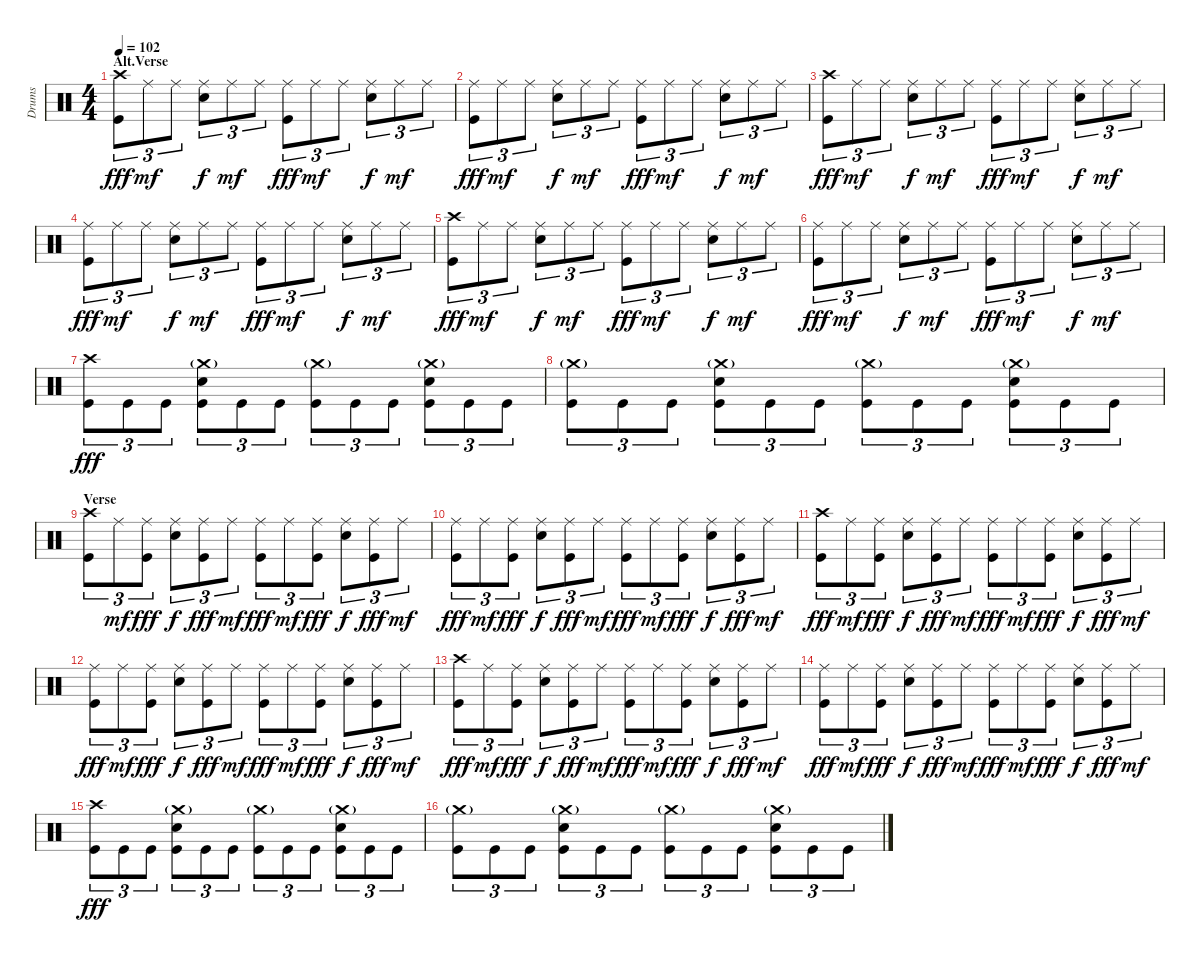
\track ("Drums" "Drums") {instrument percussion}
\staff {score}
\articulation defaults
\ts (4 4)
\section ("" "Alt.Verse")
\tempo 102
\clef neutral
\ks c
("Crash high (hit)" "Kick (hit)").8{tu (3 2) dy fff} "Ride (middle)".8{tu (3 2) dy mf} "Ride (middle)".8{tu (3 2)} ("Ride (middle)" "Snare (hit) 2").8{tu (3 2) dy f} "Ride (middle)".8{tu (3 2) dy mf} "Ride (middle)".8{tu (3 2)} ("Ride (middle)" "Kick (hit)").8{tu (3 2) dy fff} "Ride (middle)".8{tu (3 2) dy mf} "Ride (middle)".8{tu (3 2)} ("Ride (middle)" "Snare (hit) 2").8{tu (3 2) dy f} "Ride (middle)".8{tu (3 2) dy mf} "Ride (middle)".8{tu (3 2)} |
("Ride (middle)" "Kick (hit)").8{tu (3 2) dy fff} "Ride (middle)".8{tu (3 2) dy mf} "Ride (middle)".8{tu (3 2)} ("Ride (middle)" "Snare (hit) 2").8{tu (3 2) dy f} "Ride (middle)".8{tu (3 2) dy mf} "Ride (middle)".8{tu (3 2)} ("Ride (middle)" "Kick (hit)").8{tu (3 2) dy fff} "Ride (middle)".8{tu (3 2) dy mf} "Ride (middle)".8{tu (3 2)} ("Ride (middle)" "Snare (hit) 2").8{tu (3 2) dy f} "Ride (middle)".8{tu (3 2) dy mf} "Ride (middle)".8{tu (3 2)} |
("Crash high (hit)" "Kick (hit)").8{tu (3 2) dy fff} "Ride (middle)".8{tu (3 2) dy mf} "Ride (middle)".8{tu (3 2)} ("Ride (middle)" "Snare (hit) 2").8{tu (3 2) dy f} "Ride (middle)".8{tu (3 2) dy mf} "Ride (middle)".8{tu (3 2)} ("Ride (middle)" "Kick (hit)").8{tu (3 2) dy fff} "Ride (middle)".8{tu (3 2) dy mf} "Ride (middle)".8{tu (3 2)} ("Ride (middle)" "Snare (hit) 2").8{tu (3 2) dy f} "Ride (middle)".8{tu (3 2) dy mf} "Ride (middle)".8{tu (3 2)} |
("Ride (middle)" "Kick (hit)").8{tu (3 2) dy fff} "Ride (middle)".8{tu (3 2) dy mf} "Ride (middle)".8{tu (3 2)} ("Ride (middle)" "Snare (hit) 2").8{tu (3 2) dy f} "Ride (middle)".8{tu (3 2) dy mf} "Ride (middle)".8{tu (3 2)} ("Ride (middle)" "Kick (hit)").8{tu (3 2) dy fff} "Ride (middle)".8{tu (3 2) dy mf} "Ride (middle)".8{tu (3 2)} ("Ride (middle)" "Snare (hit) 2").8{tu (3 2) dy f} "Ride (middle)".8{tu (3 2) dy mf} "Ride (middle)".8{tu (3 2)} |
("Crash high (hit)" "Kick (hit)").8{tu (3 2) dy fff} "Ride (middle)".8{tu (3 2) dy mf} "Ride (middle)".8{tu (3 2)} ("Ride (middle)" "Snare (hit) 2").8{tu (3 2) dy f} "Ride (middle)".8{tu (3 2) dy mf} "Ride (middle)".8{tu (3 2)} ("Ride (middle)" "Kick (hit)").8{tu (3 2) dy fff} "Ride (middle)".8{tu (3 2) dy mf} "Ride (middle)".8{tu (3 2)} ("Ride (middle)" "Snare (hit) 2").8{tu (3 2) dy f} "Ride (middle)".8{tu (3 2) dy mf} "Ride (middle)".8{tu (3 2)} |
("Ride (middle)" "Kick (hit)").8{tu (3 2) dy fff} "Ride (middle)".8{tu (3 2) dy mf} "Ride (middle)".8{tu (3 2)} ("Ride (middle)" "Snare (hit) 2").8{tu (3 2) dy f} "Ride (middle)".8{tu (3 2) dy mf} "Ride (middle)".8{tu (3 2)} ("Ride (middle)" "Kick (hit)").8{tu (3 2) dy fff} "Ride (middle)".8{tu (3 2) dy mf} "Ride (middle)".8{tu (3 2)} ("Ride (middle)" "Snare (hit) 2").8{tu (3 2) dy f} "Ride (middle)".8{tu (3 2) dy mf} "Ride (middle)".8{tu (3 2)} |
("Crash high (hit)" "Kick (hit)").8{tu (3 2) dy fff} "Kick (hit)".8{tu (3 2)} "Kick (hit)".8{tu (3 2)} ("Crash medium (hit)"{g} "Snare (hit) 2" "Kick (hit)").8{tu (3 2)} "Kick (hit)".8{tu (3 2)} "Kick (hit)".8{tu (3 2)} ("Crash medium (hit)"{g} "Kick (hit)").8{tu (3 2)} "Kick (hit)".8{tu (3 2)} "Kick (hit)".8{tu (3 2)} ("Crash medium (hit)"{g} "Snare (hit) 2" "Kick (hit)").8{tu (3 2)} "Kick (hit)".8{tu (3 2)} "Kick (hit)".8{tu (3 2)} |
("Crash medium (hit)"{g} "Kick (hit)").8{tu (3 2)} "Kick (hit)".8{tu (3 2)} "Kick (hit)".8{tu (3 2)} ("Crash medium (hit)"{g} "Snare (hit) 2" "Kick (hit)").8{tu (3 2)} "Kick (hit)".8{tu (3 2)} "Kick (hit)".8{tu (3 2)} ("Crash medium (hit)"{g} "Kick (hit)").8{tu (3 2)} "Kick (hit)".8{tu (3 2)} "Kick (hit)".8{tu (3 2)} ("Crash medium (hit)"{g} "Snare (hit) 2" "Kick (hit)").8{tu (3 2)} "Kick (hit)".8{tu (3 2)} "Kick (hit)".8{tu (3 2)} |
\section ("" "Verse")
("Crash high (hit)" "Kick (hit)").8{tu (3 2)} "Ride (middle)".8{tu (3 2) dy mf} ("Ride (middle)" "Kick (hit)").8{tu (3 2) dy fff} ("Ride (middle)" "Snare (hit) 2").8{tu (3 2) dy f} ("Ride (middle)" "Kick (hit)").8{tu (3 2) dy fff} "Ride (middle)".8{tu (3 2) dy mf} ("Ride (middle)" "Kick (hit)").8{tu (3 2) dy fff} "Ride (middle)".8{tu (3 2) dy mf} ("Ride (middle)" "Kick (hit)").8{tu (3 2) dy fff} ("Ride (middle)" "Snare (hit) 2").8{tu (3 2) dy f} ("Ride (middle)" "Kick (hit)").8{tu (3 2) dy fff} "Ride (middle)".8{tu (3 2) dy mf} |
("Ride (middle)" "Kick (hit)").8{tu (3 2) dy fff} "Ride (middle)".8{tu (3 2) dy mf} ("Ride (middle)" "Kick (hit)").8{tu (3 2) dy fff} ("Ride (middle)" "Snare (hit) 2").8{tu (3 2) dy f} ("Ride (middle)" "Kick (hit)").8{tu (3 2) dy fff} "Ride (middle)".8{tu (3 2) dy mf} ("Ride (middle)" "Kick (hit)").8{tu (3 2) dy fff} "Ride (middle)".8{tu (3 2) dy mf} ("Ride (middle)" "Kick (hit)").8{tu (3 2) dy fff} ("Ride (middle)" "Snare (hit) 2").8{tu (3 2) dy f} ("Ride (middle)" "Kick (hit)").8{tu (3 2) dy fff} "Ride (middle)".8{tu (3 2) dy mf} |
("Crash high (hit)" "Kick (hit)").8{tu (3 2) dy fff} "Ride (middle)".8{tu (3 2) dy mf} ("Ride (middle)" "Kick (hit)").8{tu (3 2) dy fff} ("Ride (middle)" "Snare (hit) 2").8{tu (3 2) dy f} ("Ride (middle)" "Kick (hit)").8{tu (3 2) dy fff} "Ride (middle)".8{tu (3 2) dy mf} ("Ride (middle)" "Kick (hit)").8{tu (3 2) dy fff} "Ride (middle)".8{tu (3 2) dy mf} ("Ride (middle)" "Kick (hit)").8{tu (3 2) dy fff} ("Ride (middle)" "Snare (hit) 2").8{tu (3 2) dy f} ("Ride (middle)" "Kick (hit)").8{tu (3 2) dy fff} "Ride (middle)".8{tu (3 2) dy mf} |
("Ride (middle)" "Kick (hit)").8{tu (3 2) dy fff} "Ride (middle)".8{tu (3 2) dy mf} ("Ride (middle)" "Kick (hit)").8{tu (3 2) dy fff} ("Ride (middle)" "Snare (hit) 2").8{tu (3 2) dy f} ("Ride (middle)" "Kick (hit)").8{tu (3 2) dy fff} "Ride (middle)".8{tu (3 2) dy mf} ("Ride (middle)" "Kick (hit)").8{tu (3 2) dy fff} "Ride (middle)".8{tu (3 2) dy mf} ("Ride (middle)" "Kick (hit)").8{tu (3 2) dy fff} ("Ride (middle)" "Snare (hit) 2").8{tu (3 2) dy f} ("Ride (middle)" "Kick (hit)").8{tu (3 2) dy fff} "Ride (middle)".8{tu (3 2) dy mf} |
("Crash high (hit)" "Kick (hit)").8{tu (3 2) dy fff} "Ride (middle)".8{tu (3 2) dy mf} ("Ride (middle)" "Kick (hit)").8{tu (3 2) dy fff} ("Ride (middle)" "Snare (hit) 2").8{tu (3 2) dy f} ("Ride (middle)" "Kick (hit)").8{tu (3 2) dy fff} "Ride (middle)".8{tu (3 2) dy mf} ("Ride (middle)" "Kick (hit)").8{tu (3 2) dy fff} "Ride (middle)".8{tu (3 2) dy mf} ("Ride (middle)" "Kick (hit)").8{tu (3 2) dy fff} ("Ride (middle)" "Snare (hit) 2").8{tu (3 2) dy f} ("Ride (middle)" "Kick (hit)").8{tu (3 2) dy fff} "Ride (middle)".8{tu (3 2) dy mf} |
("Ride (middle)" "Kick (hit)").8{tu (3 2) dy fff} "Ride (middle)".8{tu (3 2) dy mf} ("Ride (middle)" "Kick (hit)").8{tu (3 2) dy fff} ("Ride (middle)" "Snare (hit) 2").8{tu (3 2) dy f} ("Ride (middle)" "Kick (hit)").8{tu (3 2) dy fff} "Ride (middle)".8{tu (3 2) dy mf} ("Ride (middle)" "Kick (hit)").8{tu (3 2) dy fff} "Ride (middle)".8{tu (3 2) dy mf} ("Ride (middle)" "Kick (hit)").8{tu (3 2) dy fff} ("Ride (middle)" "Snare (hit) 2").8{tu (3 2) dy f} ("Ride (middle)" "Kick (hit)").8{tu (3 2) dy fff} "Ride (middle)".8{tu (3 2) dy mf} |
("Crash high (hit)" "Kick (hit)").8{tu (3 2) dy fff} "Kick (hit)".8{tu (3 2)} "Kick (hit)".8{tu (3 2)} ("Crash medium (hit)"{g} "Snare (hit) 2" "Kick (hit)").8{tu (3 2)} "Kick (hit)".8{tu (3 2)} "Kick (hit)".8{tu (3 2)} ("Crash medium (hit)"{g} "Kick (hit)").8{tu (3 2)} "Kick (hit)".8{tu (3 2)} "Kick (hit)".8{tu (3 2)} ("Crash medium (hit)"{g} "Snare (hit) 2" "Kick (hit)").8{tu (3 2)} "Kick (hit)".8{tu (3 2)} "Kick (hit)".8{tu (3 2)} |
("Crash medium (hit)"{g} "Kick (hit)").8{tu (3 2)} "Kick (hit)".8{tu (3 2)} "Kick (hit)".8{tu (3 2)} ("Crash medium (hit)"{g} "Snare (hit) 2" "Kick (hit)").8{tu (3 2)} "Kick (hit)".8{tu (3 2)} "Kick (hit)".8{tu (3 2)} ("Crash medium (hit)"{g} "Kick (hit)").8{tu (3 2)} "Kick (hit)".8{tu (3 2)} "Kick (hit)".8{tu (3 2)} ("Crash medium (hit)"{g} "Snare (hit) 2" "Kick (hit)").8{tu (3 2)} "Kick (hit)".8{tu (3 2)} "Kick (hit)".8{tu (3 2)}
